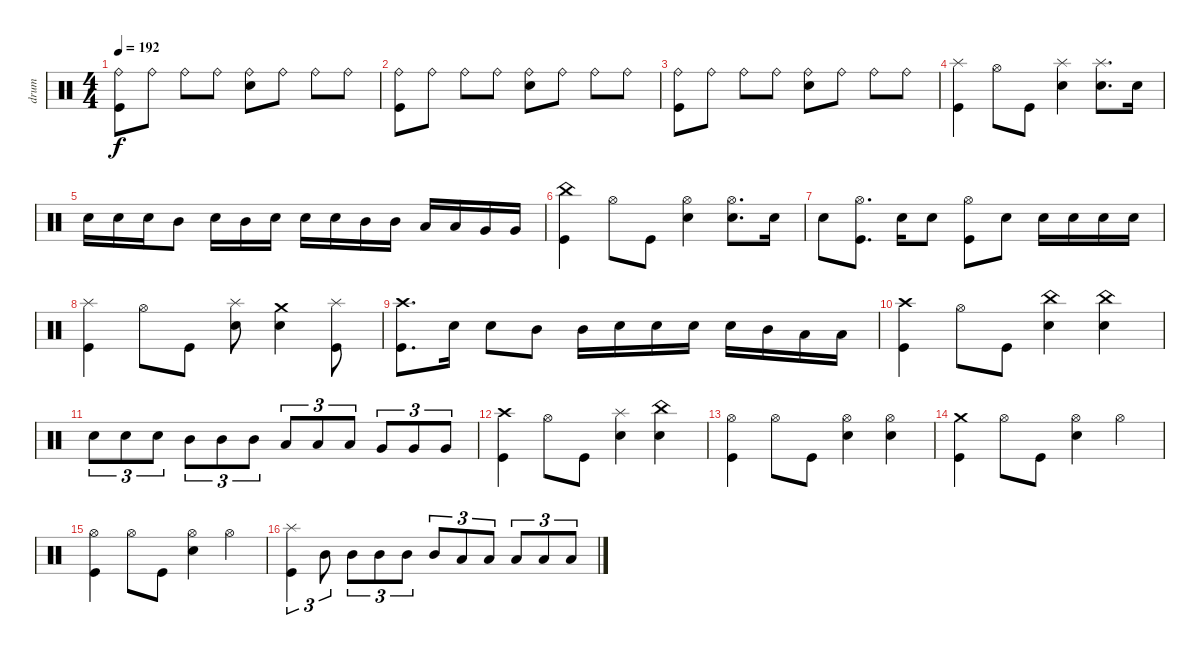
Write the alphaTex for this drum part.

\track ("drum" "drum") {instrument percussion}
\staff {score}
\articulation defaults
\ts (4 4)
\tempo 192
\clef neutral
\ks c
("Kick (hit)" "Ride (bell)").8{dy f} "Ride (bell)".8 "Ride (bell)".8 "Ride (bell)".8 ("Electric Snare (hit)" "Ride (bell)").8 "Ride (bell)".8 "Ride (bell)".8 "Ride (bell)".8 |
("Kick (hit)" "Ride (bell)").8 "Ride (bell)".8 "Ride (bell)".8 "Ride (bell)".8 ("Electric Snare (hit)" "Ride (bell)").8 "Ride (bell)".8 "Ride (bell)".8 "Ride (bell)".8 |
("Kick (hit)" "Ride (bell)").8 "Ride (bell)".8 "Ride (bell)".8 "Ride (bell)".8 ("Electric Snare (hit)" "Ride (bell)").8 "Ride (bell)".8 "Ride (bell)".8 "Ride (bell)".8 |
("Kick (hit)" "Splash (hit)").4 "Hi-Hat (open)".8 "Kick (hit)".8 ("Electric Snare (hit)" "Splash (hit)").4 ("Electric Snare (hit)" "Splash (hit)").8{d} "Electric Snare (hit)".16 |
"Electric Snare (hit)".16 "Electric Snare (hit)".16 "Electric Snare (hit)".16 "Mid Tom (hit)".8 "Electric Snare (hit)".16 "Mid Tom (hit)".16 "Electric Snare (hit)".16 "Electric Snare (hit)".16 "Electric Snare (hit)".16 "Mid Tom (hit)".16 "Mid Tom (hit)".16 "Low Tom (hit)".16 "Low Tom (hit)".16 "Very Low Tom (hit)".16 "Very Low Tom (hit)".16 |
("Kick (hit)" "China (hit)").4 "Hi-Hat (open)".8 "Kick (hit)".8 ("Electric Snare (hit)" "Hi-Hat (open)").4 ("Electric Snare (hit)" "Hi-Hat (open)").8{d} "Electric Snare (hit)".16 |
"Electric Snare (hit)".8 ("Kick (hit)" "Hi-Hat (open)").8{d} "Electric Snare (hit)".16 "Electric Snare (hit)".8 ("Kick (hit)" "Hi-Hat (open)").8 "Electric Snare (hit)".8 "Electric Snare (hit)".16 "Electric Snare (hit)".16 "Electric Snare (hit)".16 "Electric Snare (hit)".16 |
("Kick (hit)" "Splash (hit)").4 "Hi-Hat (open)".8 "Kick (hit)".8 ("Electric Snare (hit)" "Splash (hit)").8 ("Electric Snare (hit)" "Crash medium (hit)").4 ("Kick (hit)" "Splash (hit)").8 |
("Kick (hit)" "Crash high (hit)").8{d} "Electric Snare (hit)".16 "Electric Snare (hit)".8 "Mid Tom (hit)".8 "Mid Tom (hit)".16 "Electric Snare (hit)".16 "Electric Snare (hit)".16 "Electric Snare (hit)".16 "Electric Snare (hit)".16 "Mid Tom (hit)".16 "Low Tom (hit)".16 "Low Tom (hit)".16 |
("Kick (hit)" "Crash high (hit)").4 "Hi-Hat (open)".8 "Kick (hit)".8 ("Electric Snare (hit)" "China (hit)").4 ("Electric Snare (hit)" "China (hit)").4 |
"Electric Snare (hit)".8{tu (3 2)} "Electric Snare (hit)".8{tu (3 2)} "Electric Snare (hit)".8{tu (3 2)} "Mid Tom (hit)".8{tu (3 2)} "Mid Tom (hit)".8{tu (3 2)} "Mid Tom (hit)".8{tu (3 2)} "Low Tom (hit)".8{tu (3 2)} "Low Tom (hit)".8{tu (3 2)} "Low Tom (hit)".8{tu (3 2)} "Very Low Tom (hit)".8{tu (3 2)} "Very Low Tom (hit)".8{tu (3 2)} "Very Low Tom (hit)".8{tu (3 2)} |
("Kick (hit)" "Crash high (hit)").4 "Hi-Hat (open)".8 "Kick (hit)".8 ("Electric Snare (hit)" "Splash (hit)").4 ("Electric Snare (hit)" "China (hit)").4 |
("Kick (hit)" "Hi-Hat (open)").4 "Hi-Hat (open)".8 "Kick (hit)".8 ("Electric Snare (hit)" "Hi-Hat (open)").4 ("Electric Snare (hit)" "Hi-Hat (open)").4 |
("Kick (hit)" "Crash medium (hit)").4 "Hi-Hat (open)".8 "Kick (hit)".8 ("Electric Snare (hit)" "Hi-Hat (open)").4 "Hi-Hat (open)".4 |
("Kick (hit)" "Hi-Hat (open)").4 "Hi-Hat (open)".8 "Kick (hit)".8 ("Electric Snare (hit)" "Hi-Hat (open)").4 "Hi-Hat (open)".4 |
("Kick (hit)" "Splash (hit)").4{tu (3 2)} "Mid Tom (hit)".8{tu (3 2)} "Mid Tom (hit)".8{tu (3 2)} "Mid Tom (hit)".8{tu (3 2)} "Mid Tom (hit)".8{tu (3 2)} "Mid Tom (hit)".8{tu (3 2)} "Low Tom (hit)".8{tu (3 2)} "Low Tom (hit)".8{tu (3 2)} "Low Tom (hit)".8{tu (3 2)} "Low Tom (hit)".8{tu (3 2)} "Low Tom (hit)".8{tu (3 2)}
